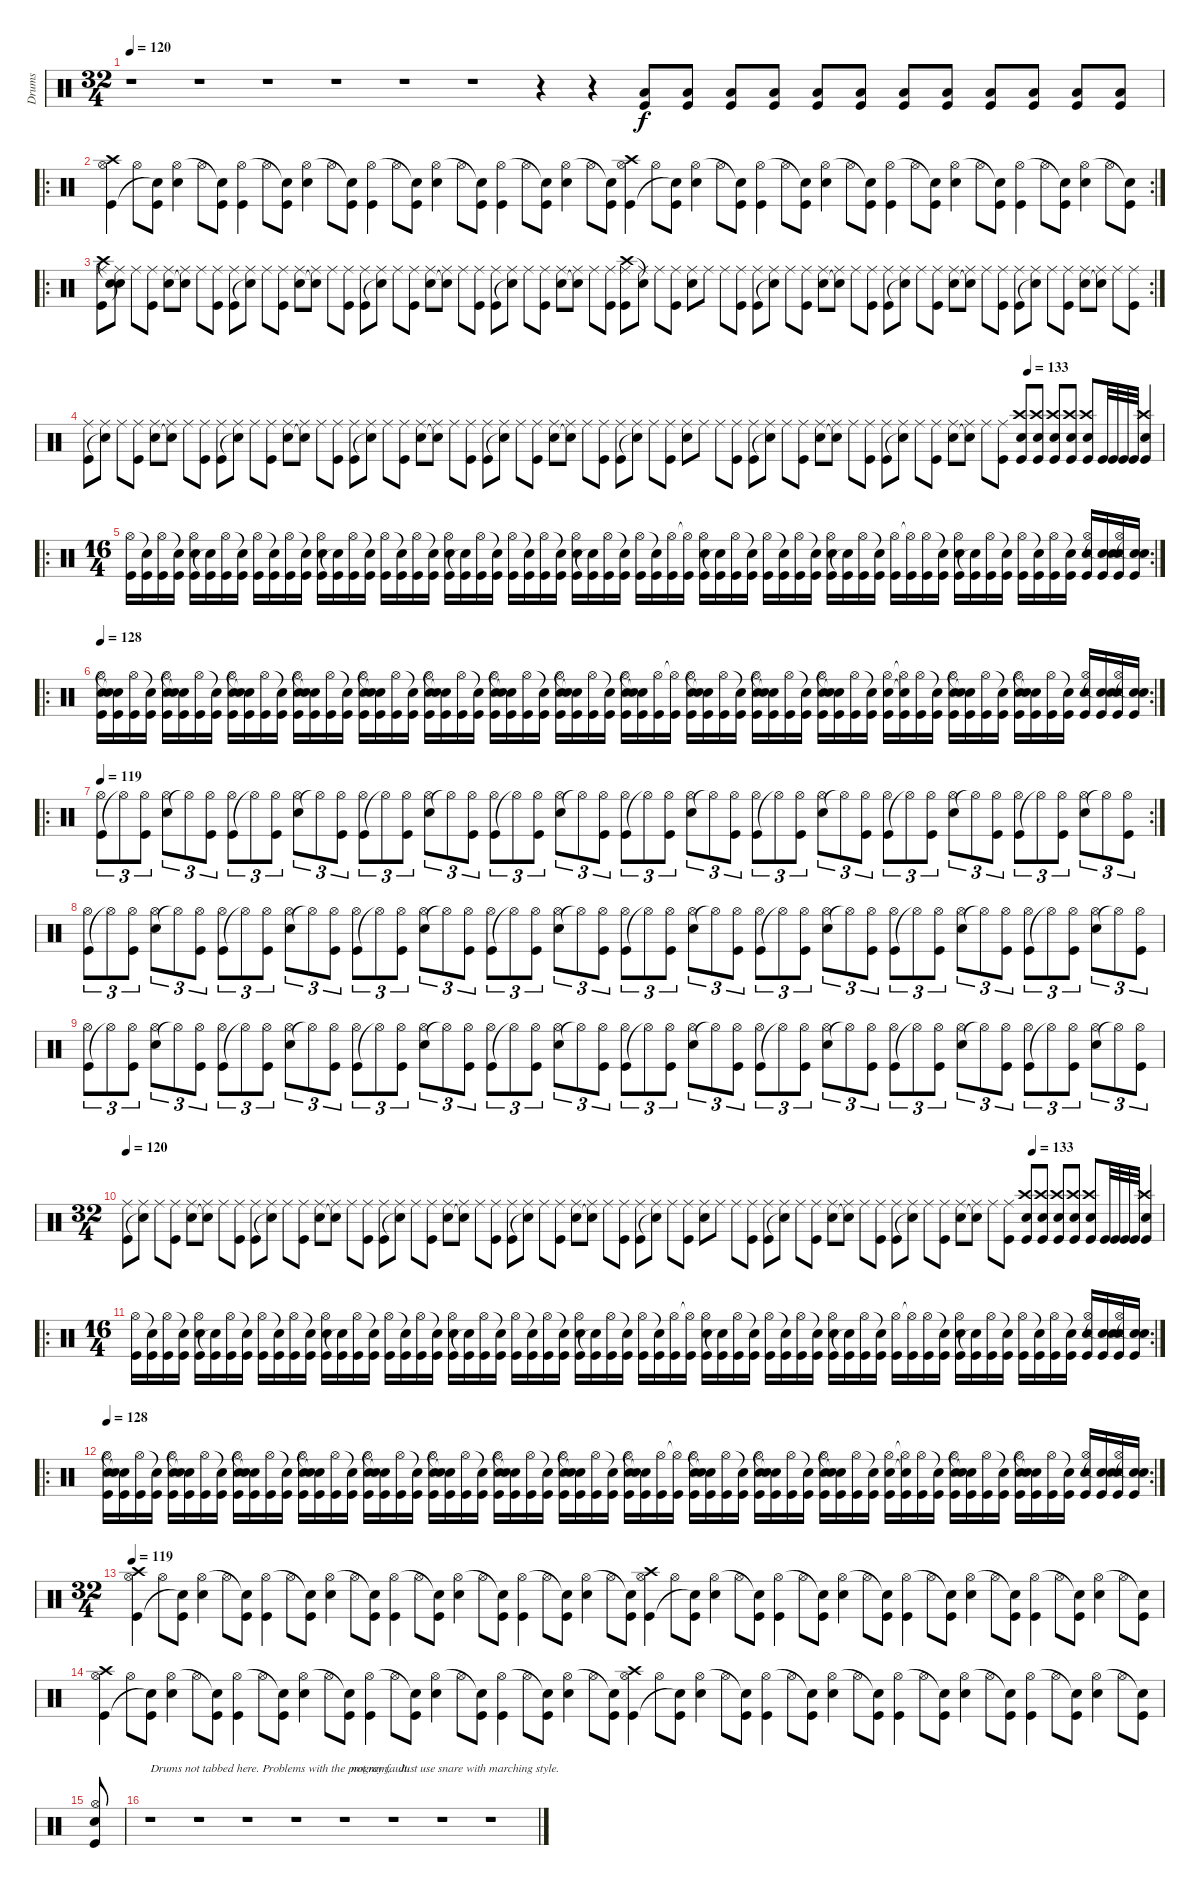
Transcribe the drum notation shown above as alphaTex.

\track ("Drums" "Drums") {instrument percussion}
\staff {score}
\articulation defaults
\ts (32 4)
\tempo 120
\tempo 117
\tempo 120
\clef neutral
\ks c
r.1{dy f} r.1 r.1 r.1 r.1 r.1 r.4 r.4 ("Low Tom (hit)" "Kick (hit)").8 ("Low Tom (hit)" "Kick (hit)").8 ("Low Tom (hit)" "Kick (hit)").8 ("Low Tom (hit)" "Kick (hit)").8 ("Low Tom (hit)" "Kick (hit)").8 ("Low Tom (hit)" "Kick (hit)").8 ("Low Tom (hit)" "Kick (hit)").8 ("Low Tom (hit)" "Kick (hit)").8 ("Low Tom (hit)" "Kick (hit)").8 ("Low Tom (hit)" "Kick (hit)").8 ("Low Tom (hit)" "Kick (hit)").8 ("Low Tom (hit)" "Kick (hit)").8 |
\ro
\rc 2
("Crash high (hit)" "Kick (hit)" "Hi-Hat (open)").4 "Hi-Hat (open)".8 ("Kick (hit)" "Snare (hit)"{t}).8 ("Snare (hit) 2" "Hi-Hat (open)").4 "Hi-Hat (open)".8 ("Kick (hit)" "Snare (hit)"{t}).8 ("Kick (hit)" "Hi-Hat (open)").4 "Hi-Hat (open)".8 ("Kick (hit)" "Snare (hit)"{t}).8 ("Snare (hit) 2" "Hi-Hat (open)").4 "Hi-Hat (open)".8 ("Kick (hit)" "Snare (hit)"{t}).8 ("Kick (hit)" "Hi-Hat (open)").4 "Hi-Hat (open)".8 ("Kick (hit)" "Snare (hit)"{t}).8 ("Snare (hit) 2" "Hi-Hat (open)").4 "Hi-Hat (open)".8 ("Kick (hit)" "Snare (hit)"{t}).8 ("Kick (hit)" "Hi-Hat (open)").4 "Hi-Hat (open)".8 ("Kick (hit)" "Snare (hit)"{t}).8 ("Snare (hit) 2" "Hi-Hat (open)").4 "Hi-Hat (open)".8 ("Kick (hit)" "Snare (hit)"{t}).8 ("Crash high (hit)" "Kick (hit)" "Hi-Hat (open)").4 "Hi-Hat (open)".8 ("Kick (hit)" "Snare (hit)"{t}).8 ("Snare (hit) 2" "Hi-Hat (open)").4 "Hi-Hat (open)".8 ("Kick (hit)" "Snare (hit)"{t}).8 ("Kick (hit)" "Hi-Hat (open)").4 "Hi-Hat (open)".8 ("Kick (hit)" "Snare (hit)"{t}).8 ("Snare (hit) 2" "Hi-Hat (open)").4 "Hi-Hat (open)".8 ("Kick (hit)" "Snare (hit)"{t}).8 ("Kick (hit)" "Hi-Hat (open)").4 "Hi-Hat (open)".8 ("Kick (hit)" "Snare (hit)"{t}).8 ("Snare (hit) 2" "Hi-Hat (open)").4 "Hi-Hat (open)".8 ("Kick (hit)" "Snare (hit)"{t}).8 ("Kick (hit)" "Hi-Hat (open)").4 "Hi-Hat (open)".8 ("Kick (hit)" "Snare (hit)"{t}).8 ("Snare (hit) 2" "Hi-Hat (open)").4 "Hi-Hat (open)".8 ("Kick (hit)" "Snare (hit)"{t}).8 |
\ro
\rc 2
("Crash high (hit)" "Kick (hit)" "Ride (middle)").8 ("Snare (hit)"{t} "Snare (hit)"{t} "Ride (middle)").8 "Ride (middle)".8 ("Kick (hit)" "Ride (middle)").8 ("Snare (hit) 2" "Ride (middle)").8 ("Snare (hit)"{t} "Ride (middle)").8 "Ride (middle)".8 ("Kick (hit)" "Ride (middle)").8 ("Kick (hit)" "Ride (middle)").8 ("Snare (hit)"{t} "Ride (middle)").8 "Ride (middle)".8 ("Kick (hit)" "Ride (middle)").8 ("Snare (hit) 2" "Ride (middle)").8 ("Snare (hit)"{t} "Ride (middle)").8 "Ride (middle)".8 ("Kick (hit)" "Ride (middle)").8 ("Kick (hit)" "Ride (middle)").8 ("Snare (hit)"{t} "Ride (middle)").8 "Ride (middle)".8 ("Kick (hit)" "Ride (middle)").8 ("Snare (hit) 2" "Ride (middle)").8 ("Snare (hit)"{t} "Ride (middle)").8 "Ride (middle)".8 ("Kick (hit)" "Ride (middle)").8 ("Kick (hit)" "Ride (middle)").8 ("Snare (hit)"{t} "Ride (middle)").8 "Ride (middle)".8 ("Kick (hit)" "Ride (middle)").8 ("Snare (hit) 2" "Ride (middle)").8 ("Snare (hit)"{t} "Ride (middle)").8 "Ride (middle)".8 ("Kick (hit)" "Ride (middle)").8 ("Crash high (hit)" "Kick (hit)" "Ride (middle)").8 ("Snare (hit)"{t} "Ride (middle)").8 "Ride (middle)".8 ("Kick (hit)" "Ride (middle)").8 ("Snare (hit) 2" "Ride (middle)").8 "Ride (middle)".8 "Ride (middle)".8 ("Kick (hit)" "Ride (middle)").8 ("Kick (hit)" "Ride (middle)").8 ("Snare (hit)"{t} "Ride (middle)").8 "Ride (middle)".8 ("Kick (hit)" "Ride (middle)").8 ("Snare (hit) 2" "Ride (middle)").8 ("Snare (hit)"{t} "Ride (middle)").8 "Ride (middle)".8 ("Kick (hit)" "Ride (middle)").8 ("Kick (hit)" "Ride (middle)").8 ("Snare (hit)"{t} "Ride (middle)").8 "Ride (middle)".8 ("Kick (hit)" "Ride (middle)").8 ("Snare (hit) 2" "Ride (middle)").8 ("Snare (hit)"{t} "Ride (middle)").8 "Ride (middle)".8 ("Kick (hit)" "Ride (middle)").8 ("Kick (hit)" "Ride (middle)").8 ("Snare (hit)"{t} "Ride (middle)").8 "Ride (middle)".8 ("Kick (hit)" "Ride (middle)").8 ("Snare (hit) 2" "Ride (middle)").8 ("Snare (hit)"{t} "Ride (middle)").8 "Ride (middle)".8 ("Kick (hit)" "Ride (middle)").8 |
\tempo (133 0.875)
("Kick (hit)" "Ride (middle)").8 ("Snare (hit)"{t} "Ride (middle)").8 "Ride (middle)".8 ("Kick (hit)" "Ride (middle)").8 ("Snare (hit) 2" "Ride (middle)").8 ("Snare (hit)"{t} "Ride (middle)").8 "Ride (middle)".8 ("Kick (hit)" "Ride (middle)").8 ("Kick (hit)" "Ride (middle)").8 ("Snare (hit)"{t} "Ride (middle)").8 "Ride (middle)".8 ("Kick (hit)" "Ride (middle)").8 ("Snare (hit) 2" "Ride (middle)").8 ("Snare (hit)"{t} "Ride (middle)").8 "Ride (middle)".8 ("Kick (hit)" "Ride (middle)").8 ("Kick (hit)" "Ride (middle)").8 ("Snare (hit)"{t} "Ride (middle)").8 "Ride (middle)".8 ("Kick (hit)" "Ride (middle)").8 ("Snare (hit) 2" "Ride (middle)").8 ("Snare (hit)"{t} "Ride (middle)").8 "Ride (middle)".8 ("Kick (hit)" "Ride (middle)").8 ("Kick (hit)" "Ride (middle)").8 ("Snare (hit)"{t} "Ride (middle)").8 "Ride (middle)".8 ("Kick (hit)" "Ride (middle)").8 ("Snare (hit) 2" "Ride (middle)").8 ("Snare (hit)"{t} "Ride (middle)").8 "Ride (middle)".8 ("Kick (hit)" "Ride (middle)").8 ("Kick (hit)" "Ride (middle)").8 ("Snare (hit)"{t} "Ride (middle)").8 "Ride (middle)".8 ("Kick (hit)" "Ride (middle)").8 ("Snare (hit) 2" "Ride (middle)").8 "Ride (middle)".8 "Ride (middle)".8 ("Kick (hit)" "Ride (middle)").8 ("Kick (hit)" "Ride (middle)").8 ("Snare (hit)"{t} "Ride (middle)").8 "Ride (middle)".8 ("Kick (hit)" "Ride (middle)").8 ("Snare (hit) 2" "Ride (middle)").8 ("Snare (hit)"{t} "Ride (middle)").8 "Ride (middle)".8 ("Kick (hit)" "Ride (middle)").8 ("Kick (hit)" "Ride (middle)").8 ("Snare (hit)"{t} "Ride (middle)").8 "Ride (middle)".8 ("Kick (hit)" "Ride (middle)").8 ("Snare (hit) 2" "Ride (middle)").8 ("Snare (hit)"{t} "Ride (middle)").8 "Ride (middle)".8 ("Kick (hit)" "Ride (middle)").8 ("Crash high (hit)" "Snare (hit) 2" "Kick (hit)").8 ("Crash high (hit)" "Snare (hit) 2" "Kick (hit)").8 ("Crash high (hit)" "Snare (hit) 2" "Kick (hit)").8 ("Crash high (hit)" "Snare (hit) 2" "Kick (hit)").8 ("Crash high (hit)" "Snare (hit) 2" "Kick (hit)").8 "Kick (hit)".32 "Kick (hit)".32 "Kick (hit)".32 "Kick (hit)".32 ("Crash high (hit)" "Snare (hit) 2" "Kick (hit)").4 |
\ro
\rc 2
\ts (16 4)
("Kick (hit)" "Hi-Hat (open)").16 ("Kick (hit)" "Snare (hit)"{t}).16 ("Kick (hit)" "Hi-Hat (open)").16 ("Kick (hit)" "Snare (hit)"{t}).16 ("Snare (hit) 2" "Kick (hit)" "Hi-Hat (open)").16 ("Kick (hit)" "Snare (hit)"{t}).16 ("Kick (hit)" "Hi-Hat (open)").16 ("Kick (hit)" "Snare (hit)"{t}).16 ("Kick (hit)" "Hi-Hat (open)").16 ("Kick (hit)" "Snare (hit)"{t}).16 ("Kick (hit)" "Hi-Hat (open)").16 ("Kick (hit)" "Snare (hit)"{t}).16 ("Snare (hit) 2" "Kick (hit)" "Hi-Hat (open)").16 ("Kick (hit)" "Snare (hit)"{t}).16 ("Kick (hit)" "Hi-Hat (open)").16 ("Kick (hit)" "Snare (hit)"{t}).16 ("Kick (hit)" "Hi-Hat (open)").16 ("Kick (hit)" "Snare (hit)"{t}).16 ("Kick (hit)" "Hi-Hat (open)").16 ("Kick (hit)" "Snare (hit)"{t}).16 ("Snare (hit) 2" "Kick (hit)" "Hi-Hat (open)").16 ("Kick (hit)" "Snare (hit)"{t}).16 ("Kick (hit)" "Hi-Hat (open)").16 ("Kick (hit)" "Snare (hit)"{t}).16 ("Kick (hit)" "Hi-Hat (open)").16 ("Kick (hit)" "Snare (hit)"{t}).16 ("Kick (hit)" "Hi-Hat (open)").16 ("Kick (hit)" "Snare (hit)"{t}).16 ("Snare (hit) 2" "Kick (hit)" "Hi-Hat (open)").16 ("Kick (hit)" "Snare (hit)"{t}).16 ("Kick (hit)" "Hi-Hat (open)").16 ("Kick (hit)" "Snare (hit)"{t}).16 ("Kick (hit)" "Hi-Hat (open)").16 ("Kick (hit)" "Snare (hit)"{t}).16 ("Kick (hit)" "Hi-Hat (open)").16 ("Kick (hit)" "Hi-Hat (open)"{t}).16 ("Snare (hit) 2" "Kick (hit)" "Hi-Hat (open)").16 ("Kick (hit)" "Snare (hit)"{t}).16 ("Kick (hit)" "Hi-Hat (open)").16 ("Kick (hit)" "Snare (hit)"{t}).16 ("Kick (hit)" "Hi-Hat (open)").16 ("Kick (hit)" "Snare (hit)"{t}).16 ("Kick (hit)" "Hi-Hat (open)").16 ("Kick (hit)" "Snare (hit)"{t}).16 ("Snare (hit) 2" "Kick (hit)" "Hi-Hat (open)").16 ("Kick (hit)" "Snare (hit)"{t}).16 ("Kick (hit)" "Hi-Hat (open)").16 ("Kick (hit)" "Snare (hit)"{t}).16 ("Kick (hit)" "Hi-Hat (open)").16 ("Kick (hit)" "Hi-Hat (open)"{t}).16 ("Kick (hit)" "Hi-Hat (open)").16 ("Kick (hit)" "Snare (hit)"{t}).16 ("Snare (hit) 2" "Kick (hit)" "Hi-Hat (open)").16 ("Kick (hit)" "Snare (hit)"{t}).16 ("Kick (hit)" "Hi-Hat (open)").16 ("Kick (hit)" "Snare (hit)"{t}).16 ("Kick (hit)" "Hi-Hat (open)").16 ("Kick (hit)" "Snare (hit)"{t}).16 ("Kick (hit)" "Hi-Hat (open)").16 ("Kick (hit)" "Snare (hit)"{t}).16 ("Snare (hit) 2" "Kick (hit)" "Hi-Hat (open)").16 ("Snare (hit) 2" "Kick (hit)" "Snare (hit)"{t}).16 ("Snare (hit) 2" "Kick (hit)" "Hi-Hat (open)").16 ("Snare (hit) 2" "Kick (hit)" "Snare (hit)"{t}).16 |
\ro
\rc 2
\tempo 128
("Snare (hit) 2" "Kick (hit)" "Hi-Hat (open)").16 ("Snare (hit)"{t} "Kick (hit)" "Snare (hit)"{t}).16 ("Kick (hit)" "Hi-Hat (open)").16 ("Kick (hit)" "Snare (hit)"{t}).16 ("Snare (hit) 2" "Kick (hit)" "Hi-Hat (open)").16 ("Snare (hit)"{t} "Kick (hit)" "Snare (hit)"{t}).16 ("Kick (hit)" "Hi-Hat (open)").16 ("Kick (hit)" "Snare (hit)"{t}).16 ("Snare (hit) 2" "Kick (hit)" "Hi-Hat (open)").16 ("Snare (hit)"{t} "Kick (hit)" "Snare (hit)"{t}).16 ("Kick (hit)" "Hi-Hat (open)").16 ("Kick (hit)" "Snare (hit)"{t}).16 ("Snare (hit) 2" "Kick (hit)" "Hi-Hat (open)").16 ("Snare (hit)"{t} "Kick (hit)" "Snare (hit)"{t}).16 ("Kick (hit)" "Hi-Hat (open)").16 ("Kick (hit)" "Snare (hit)"{t}).16 ("Snare (hit) 2" "Kick (hit)" "Hi-Hat (open)").16 ("Snare (hit)"{t} "Kick (hit)" "Snare (hit)"{t}).16 ("Kick (hit)" "Hi-Hat (open)").16 ("Kick (hit)" "Snare (hit)"{t}).16 ("Snare (hit) 2" "Kick (hit)" "Hi-Hat (open)").16 ("Snare (hit)"{t} "Kick (hit)" "Snare (hit)"{t}).16 ("Kick (hit)" "Hi-Hat (open)").16 ("Kick (hit)" "Snare (hit)"{t}).16 ("Snare (hit) 2" "Kick (hit)" "Hi-Hat (open)").16 ("Snare (hit)"{t} "Kick (hit)" "Snare (hit)"{t}).16 ("Kick (hit)" "Hi-Hat (open)").16 ("Kick (hit)" "Snare (hit)"{t}).16 ("Snare (hit) 2" "Kick (hit)" "Hi-Hat (open)").16 ("Snare (hit)"{t} "Kick (hit)" "Snare (hit)"{t}).16 ("Kick (hit)" "Hi-Hat (open)").16 ("Kick (hit)" "Snare (hit)"{t}).16 ("Snare (hit) 2" "Kick (hit)" "Hi-Hat (open)").16 ("Snare (hit)"{t} "Kick (hit)" "Snare (hit)"{t}).16 ("Kick (hit)" "Hi-Hat (open)").16 ("Kick (hit)" "Hi-Hat (open)"{t}).16 ("Snare (hit) 2" "Kick (hit)" "Hi-Hat (open)").16 ("Snare (hit)"{t} "Kick (hit)" "Snare (hit)"{t}).16 ("Kick (hit)" "Hi-Hat (open)").16 ("Kick (hit)" "Snare (hit)"{t}).16 ("Snare (hit) 2" "Kick (hit)" "Hi-Hat (open)").16 ("Snare (hit)"{t} "Kick (hit)" "Snare (hit)"{t}).16 ("Kick (hit)" "Hi-Hat (open)").16 ("Kick (hit)" "Snare (hit)"{t}).16 ("Snare (hit) 2" "Kick (hit)" "Hi-Hat (open)").16 ("Snare (hit)"{t} "Kick (hit)" "Snare (hit)"{t}).16 ("Kick (hit)" "Hi-Hat (open)").16 ("Kick (hit)" "Snare (hit)"{t}).16 ("Snare (hit) 2" "Kick (hit)" "Hi-Hat (open)").16 ("Snare (hit)"{t} "Kick (hit)" "Hi-Hat (open)"{t}).16 ("Kick (hit)" "Hi-Hat (open)").16 ("Kick (hit)" "Snare (hit)"{t}).16 ("Snare (hit) 2" "Kick (hit)" "Hi-Hat (open)").16 ("Snare (hit)"{t} "Kick (hit)" "Snare (hit)"{t}).16 ("Kick (hit)" "Hi-Hat (open)").16 ("Kick (hit)" "Snare (hit)"{t}).16 ("Snare (hit) 2" "Kick (hit)" "Hi-Hat (open)").16 ("Snare (hit)"{t} "Kick (hit)" "Snare (hit)"{t}).16 ("Kick (hit)" "Hi-Hat (open)").16 ("Kick (hit)" "Snare (hit)"{t}).16 ("Snare (hit) 2" "Kick (hit)" "Hi-Hat (open)").16 ("Snare (hit) 2" "Kick (hit)" "Snare (hit)"{t}).16 ("Snare (hit) 2" "Kick (hit)" "Hi-Hat (open)").16 ("Snare (hit) 2" "Kick (hit)" "Snare (hit)"{t}).16 |
\ro
\rc 2
\tempo 119
("Kick (hit)" "Hi-Hat (open)").8{tu (3 2)} "Hi-Hat (open)"{t}.8{tu (3 2)} ("Kick (hit)" "Hi-Hat (open)").8{tu (3 2)} ("Snare (hit) 2" "Hi-Hat (open)").8{tu (3 2)} "Hi-Hat (open)"{t}.8{tu (3 2)} ("Kick (hit)" "Hi-Hat (open)").8{tu (3 2)} ("Kick (hit)" "Hi-Hat (open)").8{tu (3 2)} "Hi-Hat (open)"{t}.8{tu (3 2)} ("Kick (hit)" "Hi-Hat (open)").8{tu (3 2)} ("Snare (hit) 2" "Hi-Hat (open)").8{tu (3 2)} "Hi-Hat (open)"{t}.8{tu (3 2)} ("Kick (hit)" "Hi-Hat (open)").8{tu (3 2)} ("Kick (hit)" "Hi-Hat (open)").8{tu (3 2)} "Hi-Hat (open)"{t}.8{tu (3 2)} ("Kick (hit)" "Hi-Hat (open)").8{tu (3 2)} ("Snare (hit) 2" "Hi-Hat (open)").8{tu (3 2)} "Hi-Hat (open)"{t}.8{tu (3 2)} ("Kick (hit)" "Hi-Hat (open)").8{tu (3 2)} ("Kick (hit)" "Hi-Hat (open)").8{tu (3 2)} "Hi-Hat (open)"{t}.8{tu (3 2)} ("Kick (hit)" "Hi-Hat (open)").8{tu (3 2)} ("Snare (hit) 2" "Hi-Hat (open)").8{tu (3 2)} "Hi-Hat (open)"{t}.8{tu (3 2)} ("Kick (hit)" "Hi-Hat (open)").8{tu (3 2)} ("Kick (hit)" "Hi-Hat (open)").8{tu (3 2)} "Hi-Hat (open)"{t}.8{tu (3 2)} ("Kick (hit)" "Hi-Hat (open)").8{tu (3 2)} ("Snare (hit) 2" "Hi-Hat (open)").8{tu (3 2)} "Hi-Hat (open)"{t}.8{tu (3 2)} ("Kick (hit)" "Hi-Hat (open)").8{tu (3 2)} ("Kick (hit)" "Hi-Hat (open)").8{tu (3 2)} "Hi-Hat (open)"{t}.8{tu (3 2)} ("Kick (hit)" "Hi-Hat (open)").8{tu (3 2)} ("Snare (hit) 2" "Hi-Hat (open)").8{tu (3 2)} "Hi-Hat (open)"{t}.8{tu (3 2)} ("Kick (hit)" "Hi-Hat (open)").8{tu (3 2)} ("Kick (hit)" "Hi-Hat (open)").8{tu (3 2)} "Hi-Hat (open)"{t}.8{tu (3 2)} ("Kick (hit)" "Hi-Hat (open)").8{tu (3 2)} ("Snare (hit) 2" "Hi-Hat (open)").8{tu (3 2)} "Hi-Hat (open)"{t}.8{tu (3 2)} ("Kick (hit)" "Hi-Hat (open)").8{tu (3 2)} ("Kick (hit)" "Hi-Hat (open)").8{tu (3 2)} "Hi-Hat (open)"{t}.8{tu (3 2)} ("Kick (hit)" "Hi-Hat (open)").8{tu (3 2)} ("Snare (hit) 2" "Hi-Hat (open)").8{tu (3 2)} "Hi-Hat (open)"{t}.8{tu (3 2)} ("Kick (hit)" "Hi-Hat (open)").8{tu (3 2)} |
("Kick (hit)" "Hi-Hat (open)").8{tu (3 2)} "Hi-Hat (open)"{t}.8{tu (3 2)} ("Kick (hit)" "Hi-Hat (open)").8{tu (3 2)} ("Snare (hit) 2" "Hi-Hat (open)").8{tu (3 2)} "Hi-Hat (open)"{t}.8{tu (3 2)} ("Kick (hit)" "Hi-Hat (open)").8{tu (3 2)} ("Kick (hit)" "Hi-Hat (open)").8{tu (3 2)} "Hi-Hat (open)"{t}.8{tu (3 2)} ("Kick (hit)" "Hi-Hat (open)").8{tu (3 2)} ("Snare (hit) 2" "Hi-Hat (open)").8{tu (3 2)} "Hi-Hat (open)"{t}.8{tu (3 2)} ("Kick (hit)" "Hi-Hat (open)").8{tu (3 2)} ("Kick (hit)" "Hi-Hat (open)").8{tu (3 2)} "Hi-Hat (open)"{t}.8{tu (3 2)} ("Kick (hit)" "Hi-Hat (open)").8{tu (3 2)} ("Snare (hit) 2" "Hi-Hat (open)").8{tu (3 2)} "Hi-Hat (open)"{t}.8{tu (3 2)} ("Kick (hit)" "Hi-Hat (open)").8{tu (3 2)} ("Kick (hit)" "Hi-Hat (open)").8{tu (3 2)} "Hi-Hat (open)"{t}.8{tu (3 2)} ("Kick (hit)" "Hi-Hat (open)").8{tu (3 2)} ("Snare (hit) 2" "Hi-Hat (open)").8{tu (3 2)} "Hi-Hat (open)"{t}.8{tu (3 2)} ("Kick (hit)" "Hi-Hat (open)").8{tu (3 2)} ("Kick (hit)" "Hi-Hat (open)").8{tu (3 2)} "Hi-Hat (open)"{t}.8{tu (3 2)} ("Kick (hit)" "Hi-Hat (open)").8{tu (3 2)} ("Snare (hit) 2" "Hi-Hat (open)").8{tu (3 2)} "Hi-Hat (open)"{t}.8{tu (3 2)} ("Kick (hit)" "Hi-Hat (open)").8{tu (3 2)} ("Kick (hit)" "Hi-Hat (open)").8{tu (3 2)} "Hi-Hat (open)"{t}.8{tu (3 2)} ("Kick (hit)" "Hi-Hat (open)").8{tu (3 2)} ("Snare (hit) 2" "Hi-Hat (open)").8{tu (3 2)} "Hi-Hat (open)"{t}.8{tu (3 2)} ("Kick (hit)" "Hi-Hat (open)").8{tu (3 2)} ("Kick (hit)" "Hi-Hat (open)").8{tu (3 2)} "Hi-Hat (open)"{t}.8{tu (3 2)} ("Kick (hit)" "Hi-Hat (open)").8{tu (3 2)} ("Snare (hit) 2" "Hi-Hat (open)").8{tu (3 2)} "Hi-Hat (open)"{t}.8{tu (3 2)} ("Kick (hit)" "Hi-Hat (open)").8{tu (3 2)} ("Kick (hit)" "Hi-Hat (open)").8{tu (3 2)} "Hi-Hat (open)"{t}.8{tu (3 2)} ("Kick (hit)" "Hi-Hat (open)").8{tu (3 2)} ("Snare (hit) 2" "Hi-Hat (open)").8{tu (3 2)} "Hi-Hat (open)"{t}.8{tu (3 2)} ("Kick (hit)" "Hi-Hat (open)").8{tu (3 2)} |
("Kick (hit)" "Hi-Hat (open)").8{tu (3 2)} "Hi-Hat (open)"{t}.8{tu (3 2)} ("Kick (hit)" "Hi-Hat (open)").8{tu (3 2)} ("Snare (hit) 2" "Hi-Hat (open)").8{tu (3 2)} "Hi-Hat (open)"{t}.8{tu (3 2)} ("Kick (hit)" "Hi-Hat (open)").8{tu (3 2)} ("Kick (hit)" "Hi-Hat (open)").8{tu (3 2)} "Hi-Hat (open)"{t}.8{tu (3 2)} ("Kick (hit)" "Hi-Hat (open)").8{tu (3 2)} ("Snare (hit) 2" "Hi-Hat (open)").8{tu (3 2)} "Hi-Hat (open)"{t}.8{tu (3 2)} ("Kick (hit)" "Hi-Hat (open)").8{tu (3 2)} ("Kick (hit)" "Hi-Hat (open)").8{tu (3 2)} "Hi-Hat (open)"{t}.8{tu (3 2)} ("Kick (hit)" "Hi-Hat (open)").8{tu (3 2)} ("Snare (hit) 2" "Hi-Hat (open)").8{tu (3 2)} "Hi-Hat (open)"{t}.8{tu (3 2)} ("Kick (hit)" "Hi-Hat (open)").8{tu (3 2)} ("Kick (hit)" "Hi-Hat (open)").8{tu (3 2)} "Hi-Hat (open)"{t}.8{tu (3 2)} ("Kick (hit)" "Hi-Hat (open)").8{tu (3 2)} ("Snare (hit) 2" "Hi-Hat (open)").8{tu (3 2)} "Hi-Hat (open)"{t}.8{tu (3 2)} ("Kick (hit)" "Hi-Hat (open)").8{tu (3 2)} ("Kick (hit)" "Hi-Hat (open)").8{tu (3 2)} "Hi-Hat (open)"{t}.8{tu (3 2)} ("Kick (hit)" "Hi-Hat (open)").8{tu (3 2)} ("Snare (hit) 2" "Hi-Hat (open)").8{tu (3 2)} "Hi-Hat (open)"{t}.8{tu (3 2)} ("Kick (hit)" "Hi-Hat (open)").8{tu (3 2)} ("Kick (hit)" "Hi-Hat (open)").8{tu (3 2)} "Hi-Hat (open)"{t}.8{tu (3 2)} ("Kick (hit)" "Hi-Hat (open)").8{tu (3 2)} ("Snare (hit) 2" "Hi-Hat (open)").8{tu (3 2)} "Hi-Hat (open)"{t}.8{tu (3 2)} ("Kick (hit)" "Hi-Hat (open)").8{tu (3 2)} ("Kick (hit)" "Hi-Hat (open)").8{tu (3 2)} "Hi-Hat (open)"{t}.8{tu (3 2)} ("Kick (hit)" "Hi-Hat (open)").8{tu (3 2)} ("Snare (hit) 2" "Hi-Hat (open)").8{tu (3 2)} "Hi-Hat (open)"{t}.8{tu (3 2)} ("Kick (hit)" "Hi-Hat (open)").8{tu (3 2)} ("Kick (hit)" "Hi-Hat (open)").8{tu (3 2)} "Hi-Hat (open)"{t}.8{tu (3 2)} ("Kick (hit)" "Hi-Hat (open)").8{tu (3 2)} ("Snare (hit) 2" "Hi-Hat (open)").8{tu (3 2)} "Hi-Hat (open)"{t}.8{tu (3 2)} ("Kick (hit)" "Hi-Hat (open)").8{tu (3 2)} |
\ts (32 4)
\tempo 120
\tempo (133 0.875)
("Kick (hit)" "Ride (middle)").8 ("Snare (hit)"{t} "Ride (middle)").8 "Ride (middle)".8 ("Kick (hit)" "Ride (middle)").8 ("Snare (hit) 2" "Ride (middle)").8 ("Snare (hit)"{t} "Ride (middle)").8 "Ride (middle)".8 ("Kick (hit)" "Ride (middle)").8 ("Kick (hit)" "Ride (middle)").8 ("Snare (hit)"{t} "Ride (middle)").8 "Ride (middle)".8 ("Kick (hit)" "Ride (middle)").8 ("Snare (hit) 2" "Ride (middle)").8 ("Snare (hit)"{t} "Ride (middle)").8 "Ride (middle)".8 ("Kick (hit)" "Ride (middle)").8 ("Kick (hit)" "Ride (middle)").8 ("Snare (hit)"{t} "Ride (middle)").8 "Ride (middle)".8 ("Kick (hit)" "Ride (middle)").8 ("Snare (hit) 2" "Ride (middle)").8 ("Snare (hit)"{t} "Ride (middle)").8 "Ride (middle)".8 ("Kick (hit)" "Ride (middle)").8 ("Kick (hit)" "Ride (middle)").8 ("Snare (hit)"{t} "Ride (middle)").8 "Ride (middle)".8 ("Kick (hit)" "Ride (middle)").8 ("Snare (hit) 2" "Ride (middle)").8 ("Snare (hit)"{t} "Ride (middle)").8 "Ride (middle)".8 ("Kick (hit)" "Ride (middle)").8 ("Kick (hit)" "Ride (middle)").8 ("Snare (hit)"{t} "Ride (middle)").8 "Ride (middle)".8 ("Kick (hit)" "Ride (middle)").8 ("Snare (hit) 2" "Ride (middle)").8 "Ride (middle)".8 "Ride (middle)".8 ("Kick (hit)" "Ride (middle)").8 ("Kick (hit)" "Ride (middle)").8 ("Snare (hit)"{t} "Ride (middle)").8 "Ride (middle)".8 ("Kick (hit)" "Ride (middle)").8 ("Snare (hit) 2" "Ride (middle)").8 ("Snare (hit)"{t} "Ride (middle)").8 "Ride (middle)".8 ("Kick (hit)" "Ride (middle)").8 ("Kick (hit)" "Ride (middle)").8 ("Snare (hit)"{t} "Ride (middle)").8 "Ride (middle)".8 ("Kick (hit)" "Ride (middle)").8 ("Snare (hit) 2" "Ride (middle)").8 ("Snare (hit)"{t} "Ride (middle)").8 "Ride (middle)".8 ("Kick (hit)" "Ride (middle)").8 ("Crash high (hit)" "Snare (hit) 2" "Kick (hit)").8 ("Crash high (hit)" "Snare (hit) 2" "Kick (hit)").8 ("Crash high (hit)" "Snare (hit) 2" "Kick (hit)").8 ("Crash high (hit)" "Snare (hit) 2" "Kick (hit)").8 ("Crash high (hit)" "Snare (hit) 2" "Kick (hit)").8 "Kick (hit)".32 "Kick (hit)".32 "Kick (hit)".32 "Kick (hit)".32 ("Crash high (hit)" "Snare (hit) 2" "Kick (hit)").4 |
\ro
\rc 2
\ts (16 4)
("Kick (hit)" "Hi-Hat (open)").16 ("Kick (hit)" "Snare (hit)"{t}).16 ("Kick (hit)" "Hi-Hat (open)").16 ("Kick (hit)" "Snare (hit)"{t}).16 ("Snare (hit) 2" "Kick (hit)" "Hi-Hat (open)").16 ("Kick (hit)" "Snare (hit)"{t}).16 ("Kick (hit)" "Hi-Hat (open)").16 ("Kick (hit)" "Snare (hit)"{t}).16 ("Kick (hit)" "Hi-Hat (open)").16 ("Kick (hit)" "Snare (hit)"{t}).16 ("Kick (hit)" "Hi-Hat (open)").16 ("Kick (hit)" "Snare (hit)"{t}).16 ("Snare (hit) 2" "Kick (hit)" "Hi-Hat (open)").16 ("Kick (hit)" "Snare (hit)"{t}).16 ("Kick (hit)" "Hi-Hat (open)").16 ("Kick (hit)" "Snare (hit)"{t}).16 ("Kick (hit)" "Hi-Hat (open)").16 ("Kick (hit)" "Snare (hit)"{t}).16 ("Kick (hit)" "Hi-Hat (open)").16 ("Kick (hit)" "Snare (hit)"{t}).16 ("Snare (hit) 2" "Kick (hit)" "Hi-Hat (open)").16 ("Kick (hit)" "Snare (hit)"{t}).16 ("Kick (hit)" "Hi-Hat (open)").16 ("Kick (hit)" "Snare (hit)"{t}).16 ("Kick (hit)" "Hi-Hat (open)").16 ("Kick (hit)" "Snare (hit)"{t}).16 ("Kick (hit)" "Hi-Hat (open)").16 ("Kick (hit)" "Snare (hit)"{t}).16 ("Snare (hit) 2" "Kick (hit)" "Hi-Hat (open)").16 ("Kick (hit)" "Snare (hit)"{t}).16 ("Kick (hit)" "Hi-Hat (open)").16 ("Kick (hit)" "Snare (hit)"{t}).16 ("Kick (hit)" "Hi-Hat (open)").16 ("Kick (hit)" "Snare (hit)"{t}).16 ("Kick (hit)" "Hi-Hat (open)").16 ("Kick (hit)" "Hi-Hat (open)"{t}).16 ("Snare (hit) 2" "Kick (hit)" "Hi-Hat (open)").16 ("Kick (hit)" "Snare (hit)"{t}).16 ("Kick (hit)" "Hi-Hat (open)").16 ("Kick (hit)" "Snare (hit)"{t}).16 ("Kick (hit)" "Hi-Hat (open)").16 ("Kick (hit)" "Snare (hit)"{t}).16 ("Kick (hit)" "Hi-Hat (open)").16 ("Kick (hit)" "Snare (hit)"{t}).16 ("Snare (hit) 2" "Kick (hit)" "Hi-Hat (open)").16 ("Kick (hit)" "Snare (hit)"{t}).16 ("Kick (hit)" "Hi-Hat (open)").16 ("Kick (hit)" "Snare (hit)"{t}).16 ("Kick (hit)" "Hi-Hat (open)").16 ("Kick (hit)" "Hi-Hat (open)"{t}).16 ("Kick (hit)" "Hi-Hat (open)").16 ("Kick (hit)" "Snare (hit)"{t}).16 ("Snare (hit) 2" "Kick (hit)" "Hi-Hat (open)").16 ("Kick (hit)" "Snare (hit)"{t}).16 ("Kick (hit)" "Hi-Hat (open)").16 ("Kick (hit)" "Snare (hit)"{t}).16 ("Kick (hit)" "Hi-Hat (open)").16 ("Kick (hit)" "Snare (hit)"{t}).16 ("Kick (hit)" "Hi-Hat (open)").16 ("Kick (hit)" "Snare (hit)"{t}).16 ("Snare (hit) 2" "Kick (hit)" "Hi-Hat (open)").16 ("Snare (hit) 2" "Kick (hit)" "Snare (hit)"{t}).16 ("Snare (hit) 2" "Kick (hit)" "Hi-Hat (open)").16 ("Snare (hit) 2" "Kick (hit)" "Snare (hit)"{t}).16 |
\ro
\rc 2
\tempo 128
("Snare (hit) 2" "Kick (hit)" "Hi-Hat (open)").16 ("Snare (hit)"{t} "Kick (hit)" "Snare (hit)"{t}).16 ("Kick (hit)" "Hi-Hat (open)").16 ("Kick (hit)" "Snare (hit)"{t}).16 ("Snare (hit) 2" "Kick (hit)" "Hi-Hat (open)").16 ("Snare (hit)"{t} "Kick (hit)" "Snare (hit)"{t}).16 ("Kick (hit)" "Hi-Hat (open)").16 ("Kick (hit)" "Snare (hit)"{t}).16 ("Snare (hit) 2" "Kick (hit)" "Hi-Hat (open)").16 ("Snare (hit)"{t} "Kick (hit)" "Snare (hit)"{t}).16 ("Kick (hit)" "Hi-Hat (open)").16 ("Kick (hit)" "Snare (hit)"{t}).16 ("Snare (hit) 2" "Kick (hit)" "Hi-Hat (open)").16 ("Snare (hit)"{t} "Kick (hit)" "Snare (hit)"{t}).16 ("Kick (hit)" "Hi-Hat (open)").16 ("Kick (hit)" "Snare (hit)"{t}).16 ("Snare (hit) 2" "Kick (hit)" "Hi-Hat (open)").16 ("Snare (hit)"{t} "Kick (hit)" "Snare (hit)"{t}).16 ("Kick (hit)" "Hi-Hat (open)").16 ("Kick (hit)" "Snare (hit)"{t}).16 ("Snare (hit) 2" "Kick (hit)" "Hi-Hat (open)").16 ("Snare (hit)"{t} "Kick (hit)" "Snare (hit)"{t}).16 ("Kick (hit)" "Hi-Hat (open)").16 ("Kick (hit)" "Snare (hit)"{t}).16 ("Snare (hit) 2" "Kick (hit)" "Hi-Hat (open)").16 ("Snare (hit)"{t} "Kick (hit)" "Snare (hit)"{t}).16 ("Kick (hit)" "Hi-Hat (open)").16 ("Kick (hit)" "Snare (hit)"{t}).16 ("Snare (hit) 2" "Kick (hit)" "Hi-Hat (open)").16 ("Snare (hit)"{t} "Kick (hit)" "Snare (hit)"{t}).16 ("Kick (hit)" "Hi-Hat (open)").16 ("Kick (hit)" "Snare (hit)"{t}).16 ("Snare (hit) 2" "Kick (hit)" "Hi-Hat (open)").16 ("Snare (hit)"{t} "Kick (hit)" "Snare (hit)"{t}).16 ("Kick (hit)" "Hi-Hat (open)").16 ("Kick (hit)" "Hi-Hat (open)"{t}).16 ("Snare (hit) 2" "Kick (hit)" "Hi-Hat (open)").16 ("Snare (hit)"{t} "Kick (hit)" "Snare (hit)"{t}).16 ("Kick (hit)" "Hi-Hat (open)").16 ("Kick (hit)" "Snare (hit)"{t}).16 ("Snare (hit) 2" "Kick (hit)" "Hi-Hat (open)").16 ("Snare (hit)"{t} "Kick (hit)" "Snare (hit)"{t}).16 ("Kick (hit)" "Hi-Hat (open)").16 ("Kick (hit)" "Snare (hit)"{t}).16 ("Snare (hit) 2" "Kick (hit)" "Hi-Hat (open)").16 ("Snare (hit)"{t} "Kick (hit)" "Snare (hit)"{t}).16 ("Kick (hit)" "Hi-Hat (open)").16 ("Kick (hit)" "Snare (hit)"{t}).16 ("Snare (hit) 2" "Kick (hit)" "Hi-Hat (open)").16 ("Snare (hit)"{t} "Kick (hit)" "Hi-Hat (open)"{t}).16 ("Kick (hit)" "Hi-Hat (open)").16 ("Kick (hit)" "Snare (hit)"{t}).16 ("Snare (hit) 2" "Kick (hit)" "Hi-Hat (open)").16 ("Snare (hit)"{t} "Kick (hit)" "Snare (hit)"{t}).16 ("Kick (hit)" "Hi-Hat (open)").16 ("Kick (hit)" "Snare (hit)"{t}).16 ("Snare (hit) 2" "Kick (hit)" "Hi-Hat (open)").16 ("Snare (hit)"{t} "Kick (hit)" "Snare (hit)"{t}).16 ("Kick (hit)" "Hi-Hat (open)").16 ("Kick (hit)" "Snare (hit)"{t}).16 ("Snare (hit) 2" "Kick (hit)" "Hi-Hat (open)").16 ("Snare (hit) 2" "Kick (hit)" "Snare (hit)"{t}).16 ("Snare (hit) 2" "Kick (hit)" "Hi-Hat (open)").16 ("Snare (hit) 2" "Kick (hit)" "Snare (hit)"{t}).16 |
\ts (32 4)
\tempo 119
("Crash high (hit)" "Kick (hit)" "Hi-Hat (open)").4 "Hi-Hat (open)".8 ("Kick (hit)" "Snare (hit)"{t}).8 ("Snare (hit) 2" "Hi-Hat (open)").4 "Hi-Hat (open)".8 ("Kick (hit)" "Snare (hit)"{t}).8 ("Kick (hit)" "Hi-Hat (open)").4 "Hi-Hat (open)".8 ("Kick (hit)" "Snare (hit)"{t}).8 ("Snare (hit) 2" "Hi-Hat (open)").4 "Hi-Hat (open)".8 ("Kick (hit)" "Snare (hit)"{t}).8 ("Kick (hit)" "Hi-Hat (open)").4 "Hi-Hat (open)".8 ("Kick (hit)" "Snare (hit)"{t}).8 ("Snare (hit) 2" "Hi-Hat (open)").4 "Hi-Hat (open)".8 ("Kick (hit)" "Snare (hit)"{t}).8 ("Kick (hit)" "Hi-Hat (open)").4 "Hi-Hat (open)".8 ("Kick (hit)" "Snare (hit)"{t}).8 ("Snare (hit) 2" "Hi-Hat (open)").4 "Hi-Hat (open)".8 ("Kick (hit)" "Snare (hit)"{t}).8 ("Crash high (hit)" "Kick (hit)" "Hi-Hat (open)").4 "Hi-Hat (open)".8 ("Kick (hit)" "Snare (hit)"{t}).8 ("Snare (hit) 2" "Hi-Hat (open)").4 "Hi-Hat (open)".8 ("Kick (hit)" "Snare (hit)"{t}).8 ("Kick (hit)" "Hi-Hat (open)").4 "Hi-Hat (open)".8 ("Kick (hit)" "Snare (hit)"{t}).8 ("Snare (hit) 2" "Hi-Hat (open)").4 "Hi-Hat (open)".8 ("Kick (hit)" "Snare (hit)"{t}).8 ("Kick (hit)" "Hi-Hat (open)").4 "Hi-Hat (open)".8 ("Kick (hit)" "Snare (hit)"{t}).8 ("Snare (hit) 2" "Hi-Hat (open)").4 "Hi-Hat (open)".8 ("Kick (hit)" "Snare (hit)"{t}).8 ("Kick (hit)" "Hi-Hat (open)").4 "Hi-Hat (open)".8 ("Kick (hit)" "Snare (hit)"{t}).8 ("Snare (hit) 2" "Hi-Hat (open)").4 "Hi-Hat (open)".8 ("Kick (hit)" "Snare (hit)"{t}).8 |
("Crash high (hit)" "Kick (hit)" "Hi-Hat (open)").4 "Hi-Hat (open)".8 ("Kick (hit)" "Snare (hit)"{t}).8 ("Snare (hit) 2" "Hi-Hat (open)").4 "Hi-Hat (open)".8 ("Kick (hit)" "Snare (hit)"{t}).8 ("Kick (hit)" "Hi-Hat (open)").4 "Hi-Hat (open)".8 ("Kick (hit)" "Snare (hit)"{t}).8 ("Snare (hit) 2" "Hi-Hat (open)").4 "Hi-Hat (open)".8 ("Kick (hit)" "Snare (hit)"{t}).8 ("Kick (hit)" "Hi-Hat (open)").4 "Hi-Hat (open)".8 ("Kick (hit)" "Snare (hit)"{t}).8 ("Snare (hit) 2" "Hi-Hat (open)").4 "Hi-Hat (open)".8 ("Kick (hit)" "Snare (hit)"{t}).8 ("Kick (hit)" "Hi-Hat (open)").4 "Hi-Hat (open)".8 ("Kick (hit)" "Snare (hit)"{t}).8 ("Snare (hit) 2" "Hi-Hat (open)").4 "Hi-Hat (open)".8 ("Kick (hit)" "Snare (hit)"{t}).8 ("Crash high (hit)" "Kick (hit)" "Hi-Hat (open)").4 "Hi-Hat (open)".8 ("Kick (hit)" "Snare (hit)"{t}).8 ("Snare (hit) 2" "Hi-Hat (open)").4 "Hi-Hat (open)".8 ("Kick (hit)" "Snare (hit)"{t}).8 ("Kick (hit)" "Hi-Hat (open)").4 "Hi-Hat (open)".8 ("Kick (hit)" "Snare (hit)"{t}).8 ("Snare (hit) 2" "Hi-Hat (open)").4 "Hi-Hat (open)".8 ("Kick (hit)" "Snare (hit)"{t}).8 ("Kick (hit)" "Hi-Hat (open)").4 "Hi-Hat (open)".8 ("Kick (hit)" "Snare (hit)"{t}).8 ("Snare (hit) 2" "Hi-Hat (open)").4 "Hi-Hat (open)".8 ("Kick (hit)" "Snare (hit)"{t}).8 ("Kick (hit)" "Hi-Hat (open)").4 "Hi-Hat (open)".8 ("Kick (hit)" "Snare (hit)"{t}).8 ("Snare (hit) 2" "Hi-Hat (open)").4 "Hi-Hat (open)".8 ("Kick (hit)" "Snare (hit)"{t}).8 |
("Hi-Hat (open)" "Snare (hit) 2" "Kick (hit)").8 |
r.1{txt "Drums not tabbed here. Problems with the program,"} r.1 r.1 r.1 r.1{txt "  not my fault."} r.1{txt "  Just use snare with marching style."} r.1 r.1
